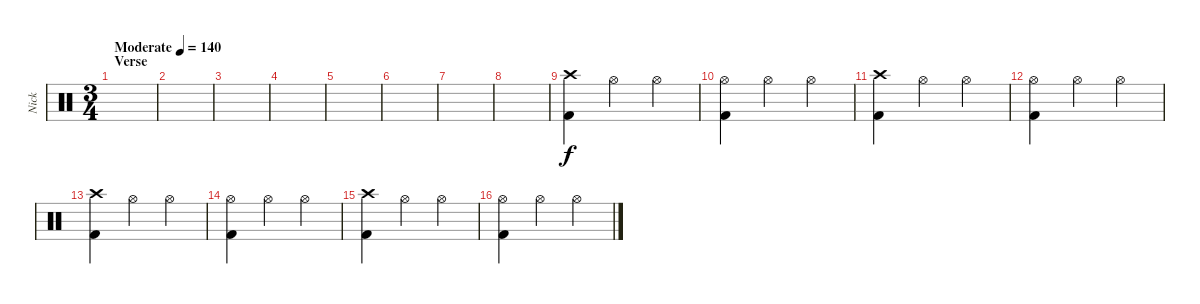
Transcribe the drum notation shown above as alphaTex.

\track ("Nick" "Nick") {instrument percussion}
\staff {score}
\articulation defaults
\ts (3 4)
\section ("" "Verse")
\tempo (140 "Moderate")
\clef neutral
\ks c
|
|
|
|
|
|
|
|
("Crash high (hit)" "Kick (hit) 2").4 "Hi-Hat (open)".4 "Hi-Hat (open)".4 |
("Hi-Hat (open)" "Kick (hit) 2").4 "Hi-Hat (open)".4 "Hi-Hat (open)".4 |
("Crash high (hit)" "Kick (hit) 2").4 "Hi-Hat (open)".4 "Hi-Hat (open)".4 |
("Hi-Hat (open)" "Kick (hit) 2").4 "Hi-Hat (open)".4 "Hi-Hat (open)".4 |
("Crash high (hit)" "Kick (hit) 2").4 "Hi-Hat (open)".4 "Hi-Hat (open)".4 |
("Hi-Hat (open)" "Kick (hit) 2").4 "Hi-Hat (open)".4 "Hi-Hat (open)".4 |
("Crash high (hit)" "Kick (hit) 2").4 "Hi-Hat (open)".4 "Hi-Hat (open)".4 |
("Hi-Hat (open)" "Kick (hit) 2").4 "Hi-Hat (open)".4 "Hi-Hat (open)".4
